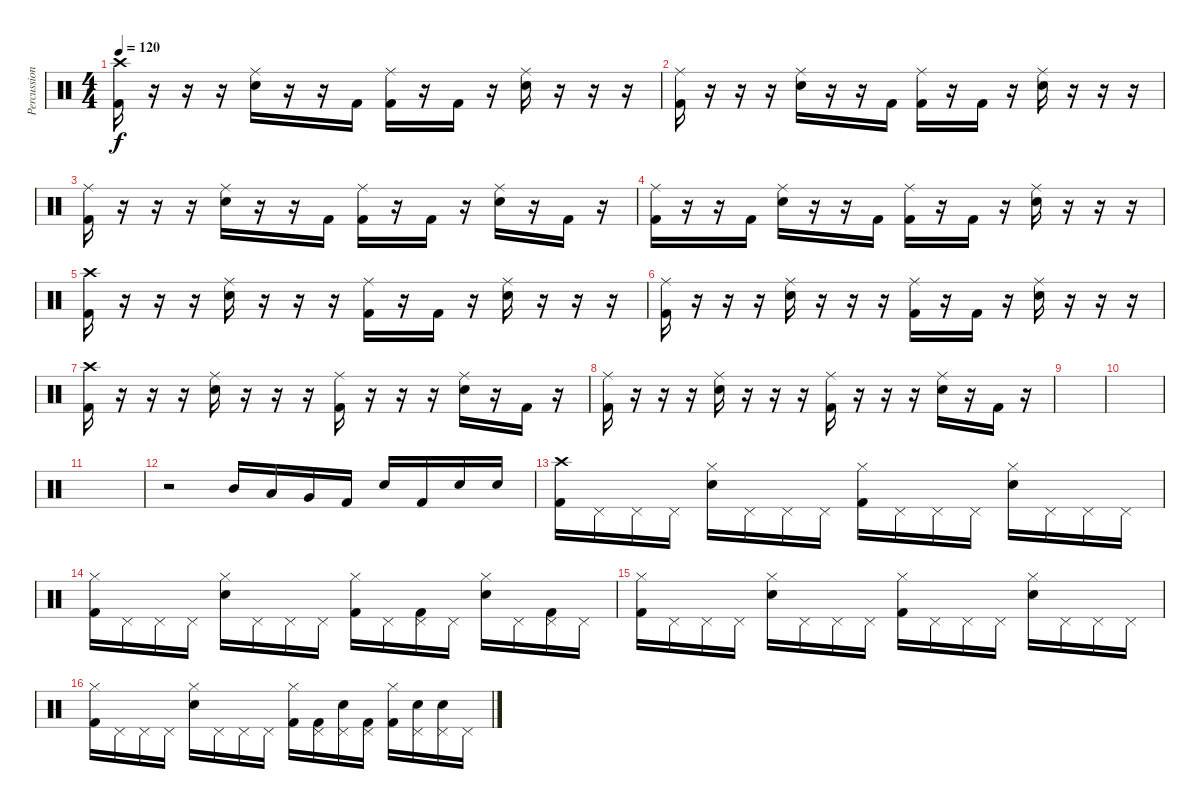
\track ("Percussion" "Percussion") {instrument percussion}
\staff {score}
\articulation defaults
\ts (4 4)
\tempo 120
\clef neutral
\ks c
("Crash high (hit)" "Kick (hit) 2").16{dy f} r.16 r.16 r.16 ("Ride (middle)" "Electric Snare (hit)").16 r.16 r.16 "Kick (hit) 2".16 ("Ride (middle)" "Kick (hit) 2").16 r.16 "Kick (hit) 2".16 r.16 ("Ride (middle)" "Electric Snare (hit)").16 r.16 r.16 r.16 |
("Ride (middle)" "Kick (hit) 2").16 r.16 r.16 r.16 ("Ride (middle)" "Electric Snare (hit)").16 r.16 r.16 "Kick (hit) 2".16 ("Ride (middle)" "Kick (hit) 2").16 r.16 "Kick (hit) 2".16 r.16 ("Ride (middle)" "Electric Snare (hit)").16 r.16 r.16 r.16 |
("Ride (middle)" "Kick (hit) 2").16 r.16 r.16 r.16 ("Ride (middle)" "Electric Snare (hit)").16 r.16 r.16 "Kick (hit) 2".16 ("Ride (middle)" "Kick (hit) 2").16 r.16 "Kick (hit) 2".16 r.16 ("Ride (middle)" "Electric Snare (hit)").16 r.16 "Kick (hit) 2".16 r.16 |
("Ride (middle)" "Kick (hit) 2").16 r.16 r.16 "Kick (hit) 2".16 ("Ride (middle)" "Electric Snare (hit)").16 r.16 r.16 "Kick (hit) 2".16 ("Ride (middle)" "Kick (hit) 2").16 r.16 "Kick (hit) 2".16 r.16 ("Ride (middle)" "Electric Snare (hit)").16 r.16 r.16 r.16 |
("Crash high (hit)" "Kick (hit) 2").16 r.16 r.16 r.16 ("Ride (middle)" "Electric Snare (hit)").16 r.16 r.16 r.16 ("Ride (middle)" "Kick (hit) 2").16 r.16 "Kick (hit) 2".16 r.16 ("Ride (middle)" "Electric Snare (hit)").16 r.16 r.16 r.16 |
("Ride (middle)" "Kick (hit) 2").16 r.16 r.16 r.16 ("Ride (middle)" "Electric Snare (hit)").16 r.16 r.16 r.16 ("Ride (middle)" "Kick (hit) 2").16 r.16 "Kick (hit) 2".16 r.16 ("Ride (middle)" "Electric Snare (hit)").16 r.16 r.16 r.16 |
("Crash high (hit)" "Kick (hit) 2").16 r.16 r.16 r.16 ("Ride (middle)" "Electric Snare (hit)").16 r.16 r.16 r.16 ("Ride (middle)" "Kick (hit) 2").16 r.16 r.16 r.16 ("Ride (middle)" "Electric Snare (hit)").16 r.16 "Kick (hit) 2".16 r.16 |
("Ride (middle)" "Kick (hit) 2").16 r.16 r.16 r.16 ("Ride (middle)" "Electric Snare (hit)").16 r.16 r.16 r.16 ("Ride (middle)" "Kick (hit) 2").16 r.16 r.16 r.16 ("Ride (middle)" "Electric Snare (hit)").16 r.16 "Kick (hit) 2".16 r.16 |
|
|
|
r.2 "Mid Tom (hit)".16 "Low Tom (hit)".16 "Very Low Tom (hit)".16 "Kick (hit) 2".16 "Electric Snare (hit)".16 "Kick (hit) 2".16 "Electric Snare (hit)".16 "Electric Snare (hit)".16 |
("Crash high (hit)" "Kick (hit) 2").16 "Pedal Hi-Hat (hit)".16 "Pedal Hi-Hat (hit)".16 "Pedal Hi-Hat (hit)".16 ("Hi-Hat (closed)" "Electric Snare (hit)").16 "Pedal Hi-Hat (hit)".16 "Pedal Hi-Hat (hit)".16 "Pedal Hi-Hat (hit)".16 ("Hi-Hat (closed)" "Kick (hit) 2").16 "Pedal Hi-Hat (hit)".16 "Pedal Hi-Hat (hit)".16 "Pedal Hi-Hat (hit)".16 ("Hi-Hat (closed)" "Electric Snare (hit)").16 "Pedal Hi-Hat (hit)".16 "Pedal Hi-Hat (hit)".16 "Pedal Hi-Hat (hit)".16 |
("Hi-Hat (closed)" "Kick (hit) 2").16 "Pedal Hi-Hat (hit)".16 "Pedal Hi-Hat (hit)".16 "Pedal Hi-Hat (hit)".16 ("Hi-Hat (closed)" "Electric Snare (hit)").16 "Pedal Hi-Hat (hit)".16 "Pedal Hi-Hat (hit)".16 "Pedal Hi-Hat (hit)".16 ("Hi-Hat (closed)" "Kick (hit) 2").16 "Pedal Hi-Hat (hit)".16 ("Pedal Hi-Hat (hit)" "Kick (hit) 2").16 "Pedal Hi-Hat (hit)".16 ("Hi-Hat (closed)" "Electric Snare (hit)").16 "Pedal Hi-Hat (hit)".16 ("Pedal Hi-Hat (hit)" "Kick (hit) 2").16 "Pedal Hi-Hat (hit)".16 |
("Hi-Hat (closed)" "Kick (hit) 2").16 "Pedal Hi-Hat (hit)".16 "Pedal Hi-Hat (hit)".16 "Pedal Hi-Hat (hit)".16 ("Hi-Hat (closed)" "Electric Snare (hit)").16 "Pedal Hi-Hat (hit)".16 "Pedal Hi-Hat (hit)".16 "Pedal Hi-Hat (hit)".16 ("Hi-Hat (closed)" "Kick (hit) 2").16 "Pedal Hi-Hat (hit)".16 "Pedal Hi-Hat (hit)".16 "Pedal Hi-Hat (hit)".16 ("Hi-Hat (closed)" "Electric Snare (hit)").16 "Pedal Hi-Hat (hit)".16 "Pedal Hi-Hat (hit)".16 "Pedal Hi-Hat (hit)".16 |
("Hi-Hat (closed)" "Kick (hit) 2").16 "Pedal Hi-Hat (hit)".16 "Pedal Hi-Hat (hit)".16 "Pedal Hi-Hat (hit)".16 ("Hi-Hat (closed)" "Electric Snare (hit)").16 "Pedal Hi-Hat (hit)".16 "Pedal Hi-Hat (hit)".16 "Pedal Hi-Hat (hit)".16 ("Hi-Hat (closed)" "Kick (hit) 2").16 ("Pedal Hi-Hat (hit)" "Kick (hit) 2").16 ("Pedal Hi-Hat (hit)" "Electric Snare (hit)").16 ("Pedal Hi-Hat (hit)" "Kick (hit) 2").16 ("Hi-Hat (closed)" "Kick (hit) 2").16 ("Pedal Hi-Hat (hit)" "Electric Snare (hit)").16 ("Pedal Hi-Hat (hit)" "Electric Snare (hit)").16 "Pedal Hi-Hat (hit)".16
